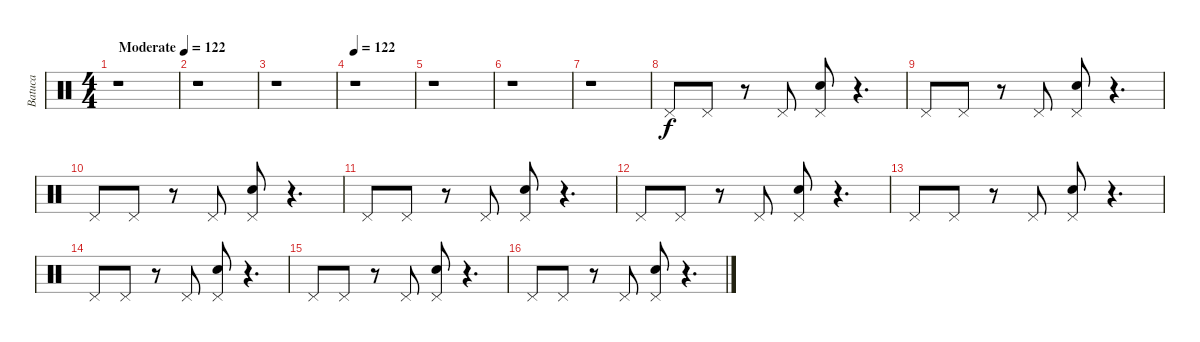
\track ("Batuca" "Batuca") {instrument percussion}
\staff {score}
\articulation defaults
\ts (4 4)
\tempo (122 "Moderate")
\clef neutral
\ks c
r.1{dy f} |
r.1 |
r.1 |
\tempo 122
r.1 |
r.1 |
r.1 |
r.1 |
"Pedal Hi-Hat (hit)".8 "Pedal Hi-Hat (hit)".8 r.8 "Pedal Hi-Hat (hit)".8 ("Electric Snare (hit)" "Pedal Hi-Hat (hit)").8 r.4{d} |
"Pedal Hi-Hat (hit)".8 "Pedal Hi-Hat (hit)".8 r.8 "Pedal Hi-Hat (hit)".8 ("Electric Snare (hit)" "Pedal Hi-Hat (hit)").8 r.4{d} |
"Pedal Hi-Hat (hit)".8 "Pedal Hi-Hat (hit)".8 r.8 "Pedal Hi-Hat (hit)".8 ("Electric Snare (hit)" "Pedal Hi-Hat (hit)").8 r.4{d} |
"Pedal Hi-Hat (hit)".8 "Pedal Hi-Hat (hit)".8 r.8 "Pedal Hi-Hat (hit)".8 ("Electric Snare (hit)" "Pedal Hi-Hat (hit)").8 r.4{d} |
"Pedal Hi-Hat (hit)".8 "Pedal Hi-Hat (hit)".8 r.8 "Pedal Hi-Hat (hit)".8 ("Electric Snare (hit)" "Pedal Hi-Hat (hit)").8 r.4{d} |
"Pedal Hi-Hat (hit)".8 "Pedal Hi-Hat (hit)".8 r.8 "Pedal Hi-Hat (hit)".8 ("Electric Snare (hit)" "Pedal Hi-Hat (hit)").8 r.4{d} |
"Pedal Hi-Hat (hit)".8 "Pedal Hi-Hat (hit)".8 r.8 "Pedal Hi-Hat (hit)".8 ("Electric Snare (hit)" "Pedal Hi-Hat (hit)").8 r.4{d} |
"Pedal Hi-Hat (hit)".8 "Pedal Hi-Hat (hit)".8 r.8 "Pedal Hi-Hat (hit)".8 ("Electric Snare (hit)" "Pedal Hi-Hat (hit)").8 r.4{d} |
"Pedal Hi-Hat (hit)".8 "Pedal Hi-Hat (hit)".8 r.8 "Pedal Hi-Hat (hit)".8 ("Electric Snare (hit)" "Pedal Hi-Hat (hit)").8 r.4{d}
